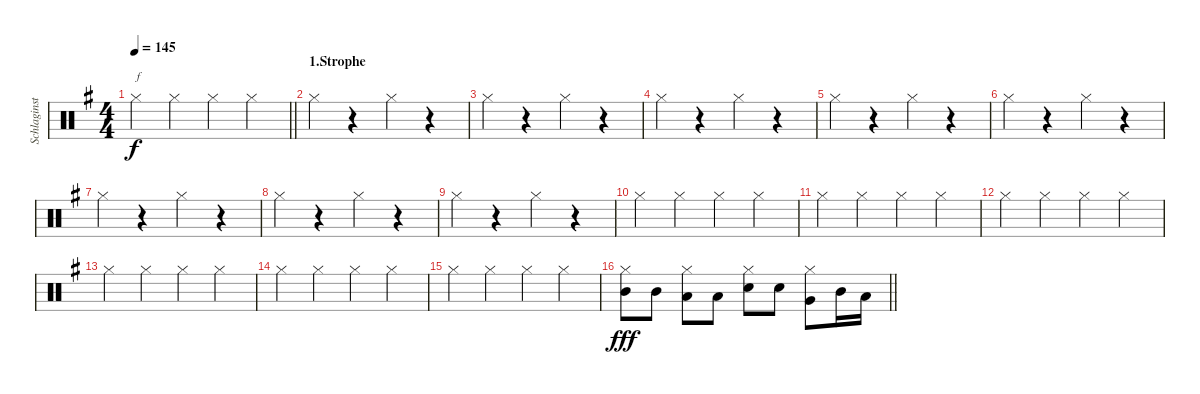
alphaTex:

\track ("Schlaginstrumente - Auswahl" "Schlaginst") {instrument percussion}
\staff {score}
\articulation defaults
\ts (4 4)
\tempo 145
\clef neutral
\barLineRight lightlight
\ks eminor "Hi-Hat (closed)".4{txt "f" dy f} "Hi-Hat (closed)".4 "Hi-Hat (closed)".4 "Hi-Hat (closed)".4
|
\section ("" "1.Strophe")
"Hi-Hat (closed)".4 r.4 "Hi-Hat (closed)".4 r.4 |
"Hi-Hat (closed)".4 r.4 "Hi-Hat (closed)".4 r.4 |
"Hi-Hat (closed)".4 r.4 "Hi-Hat (closed)".4 r.4 |
"Hi-Hat (closed)".4 r.4 "Hi-Hat (closed)".4 r.4 |
"Hi-Hat (closed)".4 r.4 "Hi-Hat (closed)".4 r.4 |
"Hi-Hat (closed)".4 r.4 "Hi-Hat (closed)".4 r.4 |
"Hi-Hat (closed)".4 r.4 "Hi-Hat (closed)".4 r.4 |
"Hi-Hat (closed)".4 r.4 "Hi-Hat (closed)".4 r.4 |
"Hi-Hat (closed)".4 "Hi-Hat (closed)".4 "Hi-Hat (closed)".4 "Hi-Hat (closed)".4 |
"Hi-Hat (closed)".4 "Hi-Hat (closed)".4 "Hi-Hat (closed)".4 "Hi-Hat (closed)".4 |
"Hi-Hat (closed)".4 "Hi-Hat (closed)".4 "Hi-Hat (closed)".4 "Hi-Hat (closed)".4 |
"Hi-Hat (closed)".4 "Hi-Hat (closed)".4 "Hi-Hat (closed)".4 "Hi-Hat (closed)".4 |
"Hi-Hat (closed)".4 "Hi-Hat (closed)".4 "Hi-Hat (closed)".4 "Hi-Hat (closed)".4 |
"Hi-Hat (closed)".4 "Hi-Hat (closed)".4 "Hi-Hat (closed)".4 "Hi-Hat (closed)".4 |
\barLineRight lightlight
("Hi-Hat (closed)" "Mid Tom (hit)").8{dy fff} "Mid Tom (hit)".8 ("Hi-Hat (closed)" "Low Tom (hit)").8 "Low Tom (hit)".8 ("Hi-Hat (closed)" "Snare (hit) 2").8 "Snare (hit) 2".8 ("Hi-Hat (closed)" "Very Low Tom (hit)").8 "Mid Tom (hit)".16 "Low Tom (hit)".16
